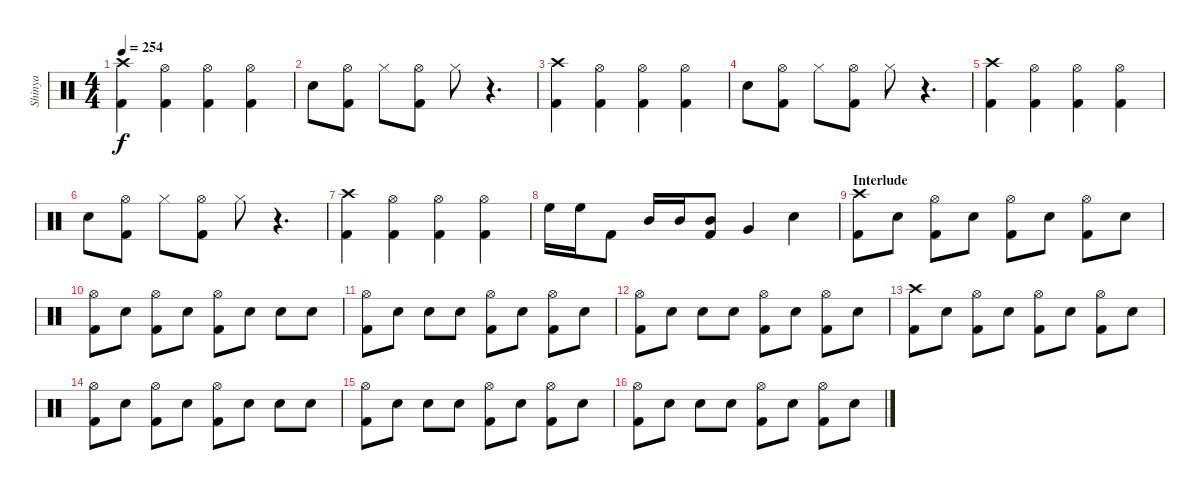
\track ("Shinya" "Shinya") {instrument percussion}
\staff {score}
\articulation defaults
\ts (4 4)
\tempo 254
\clef neutral
\ks c
("Crash high (hit)" "Kick (hit) 2").4{dy f} ("Kick (hit) 2" "Hi-Hat (open)").4 ("Kick (hit) 2" "Hi-Hat (open)").4 ("Kick (hit) 2" "Hi-Hat (open)").4 |
"Electric Snare (hit)".8 ("Kick (hit) 2" "Hi-Hat (open)").8 "Hi-Hat (closed)".8 ("Hi-Hat (open)" "Kick (hit) 2").8 "Hi-Hat (closed)".8 r.4{d} |
("Crash high (hit)" "Kick (hit) 2").4 ("Kick (hit) 2" "Hi-Hat (open)").4 ("Kick (hit) 2" "Hi-Hat (open)").4 ("Kick (hit) 2" "Hi-Hat (open)").4 |
"Electric Snare (hit)".8 ("Kick (hit) 2" "Hi-Hat (open)").8 "Hi-Hat (closed)".8 ("Hi-Hat (open)" "Kick (hit) 2").8 "Hi-Hat (closed)".8 r.4{d} |
("Crash high (hit)" "Kick (hit) 2").4 ("Kick (hit) 2" "Hi-Hat (open)").4 ("Kick (hit) 2" "Hi-Hat (open)").4 ("Kick (hit) 2" "Hi-Hat (open)").4 |
"Electric Snare (hit)".8 ("Kick (hit) 2" "Hi-Hat (open)").8 "Hi-Hat (closed)".8 ("Hi-Hat (open)" "Kick (hit) 2").8 "Hi-Hat (closed)".8 r.4{d} |
("Crash high (hit)" "Kick (hit) 2").4 ("Kick (hit) 2" "Hi-Hat (open)").4 ("Kick (hit) 2" "Hi-Hat (open)").4 ("Kick (hit) 2" "Hi-Hat (open)").4 |
"High Floor Tom (hit)".16 "High Floor Tom (hit)".16 "Kick (hit) 2".8 "Mid Tom (hit)".16 "Mid Tom (hit)".16 ("Mid Tom (hit)" "Kick (hit) 2").8 "Very Low Tom (hit)".4 "Electric Snare (hit)".4 |
\section ("" "Interlude")
("Crash high (hit)" "Kick (hit) 2").8 "Electric Snare (hit)".8 ("Hi-Hat (open)" "Kick (hit) 2").8 "Electric Snare (hit)".8 ("Hi-Hat (open)" "Kick (hit) 2").8 "Electric Snare (hit)".8 ("Hi-Hat (open)" "Kick (hit) 2").8 "Electric Snare (hit)".8 |
("Hi-Hat (open)" "Kick (hit) 2").8 "Electric Snare (hit)".8 ("Hi-Hat (open)" "Kick (hit) 2").8 "Electric Snare (hit)".8 ("Hi-Hat (open)" "Kick (hit) 2").8 "Electric Snare (hit)".8 "Electric Snare (hit)".8 "Electric Snare (hit)".8 |
("Hi-Hat (open)" "Kick (hit) 2").8 "Electric Snare (hit)".8 "Electric Snare (hit)".8 "Electric Snare (hit)".8 ("Hi-Hat (open)" "Kick (hit) 2").8 "Electric Snare (hit)".8 ("Hi-Hat (open)" "Kick (hit) 2").8 "Electric Snare (hit)".8 |
("Hi-Hat (open)" "Kick (hit) 2").8 "Electric Snare (hit)".8 "Electric Snare (hit)".8 "Electric Snare (hit)".8 ("Hi-Hat (open)" "Kick (hit) 2").8 "Electric Snare (hit)".8 ("Hi-Hat (open)" "Kick (hit) 2").8 "Electric Snare (hit)".8 |
("Crash high (hit)" "Kick (hit) 2").8 "Electric Snare (hit)".8 ("Hi-Hat (open)" "Kick (hit) 2").8 "Electric Snare (hit)".8 ("Hi-Hat (open)" "Kick (hit) 2").8 "Electric Snare (hit)".8 ("Hi-Hat (open)" "Kick (hit) 2").8 "Electric Snare (hit)".8 |
("Hi-Hat (open)" "Kick (hit) 2").8 "Electric Snare (hit)".8 ("Hi-Hat (open)" "Kick (hit) 2").8 "Electric Snare (hit)".8 ("Hi-Hat (open)" "Kick (hit) 2").8 "Electric Snare (hit)".8 "Electric Snare (hit)".8 "Electric Snare (hit)".8 |
("Hi-Hat (open)" "Kick (hit) 2").8 "Electric Snare (hit)".8 "Electric Snare (hit)".8 "Electric Snare (hit)".8 ("Hi-Hat (open)" "Kick (hit) 2").8 "Electric Snare (hit)".8 ("Hi-Hat (open)" "Kick (hit) 2").8 "Electric Snare (hit)".8 |
("Hi-Hat (open)" "Kick (hit) 2").8 "Electric Snare (hit)".8 "Electric Snare (hit)".8 "Electric Snare (hit)".8 ("Hi-Hat (open)" "Kick (hit) 2").8 "Electric Snare (hit)".8 ("Hi-Hat (open)" "Kick (hit) 2").8 "Electric Snare (hit)".8
